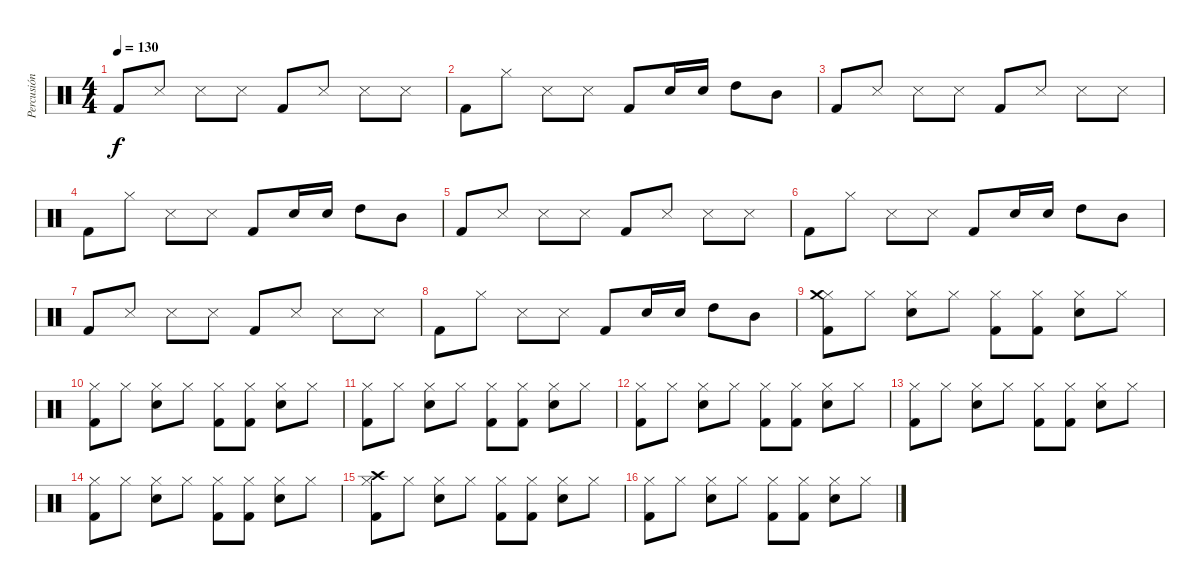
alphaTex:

\track ("Percusión" "Percusión") {instrument percussion}
\staff {score}
\articulation defaults
\ts (4 4)
\tempo 130
\clef neutral
\ks c "Kick (hit) 2".8{dy f} "Metronome (hit)".8 "Metronome (hit)".8 "Metronome (hit)".8 "Kick (hit) 2".8 "Metronome (hit)".8 "Metronome (hit)".8 "Metronome (hit)".8
|
"Kick (hit) 2".8 "Hi-Hat (closed)".8 "Metronome (hit)".8 "Metronome (hit)".8 "Kick (hit) 2".8 "Electric Snare (hit)".16 "Electric Snare (hit)".16 "High Tom (hit)".8 "Mid Tom (hit)".8 |
"Kick (hit) 2".8 "Metronome (hit)".8 "Metronome (hit)".8 "Metronome (hit)".8 "Kick (hit) 2".8 "Metronome (hit)".8 "Metronome (hit)".8 "Metronome (hit)".8 |
"Kick (hit) 2".8 "Hi-Hat (closed)".8 "Metronome (hit)".8 "Metronome (hit)".8 "Kick (hit) 2".8 "Electric Snare (hit)".16 "Electric Snare (hit)".16 "High Tom (hit)".8 "Mid Tom (hit)".8 |
"Kick (hit) 2".8 "Metronome (hit)".8 "Metronome (hit)".8 "Metronome (hit)".8 "Kick (hit) 2".8 "Metronome (hit)".8 "Metronome (hit)".8 "Metronome (hit)".8 |
"Kick (hit) 2".8 "Hi-Hat (closed)".8 "Metronome (hit)".8 "Metronome (hit)".8 "Kick (hit) 2".8 "Electric Snare (hit)".16 "Electric Snare (hit)".16 "High Tom (hit)".8 "Mid Tom (hit)".8 |
"Kick (hit) 2".8 "Metronome (hit)".8 "Metronome (hit)".8 "Metronome (hit)".8 "Kick (hit) 2".8 "Metronome (hit)".8 "Metronome (hit)".8 "Metronome (hit)".8 |
"Kick (hit) 2".8 "Hi-Hat (closed)".8 "Metronome (hit)".8 "Metronome (hit)".8 "Kick (hit) 2".8 "Electric Snare (hit)".16 "Electric Snare (hit)".16 "High Tom (hit)".8 "Mid Tom (hit)".8 |
("Hi-Hat (closed)" "Kick (hit) 2" "Crash medium (hit)").8 "Hi-Hat (closed)".8 ("Hi-Hat (closed)" "Electric Snare (hit)").8 "Hi-Hat (closed)".8 ("Hi-Hat (closed)" "Kick (hit) 2").8 ("Hi-Hat (closed)" "Kick (hit) 2").8 ("Hi-Hat (closed)" "Electric Snare (hit)").8 "Hi-Hat (closed)".8 |
("Hi-Hat (closed)" "Kick (hit) 2").8 "Hi-Hat (closed)".8 ("Hi-Hat (closed)" "Electric Snare (hit)").8 "Hi-Hat (closed)".8 ("Hi-Hat (closed)" "Kick (hit) 2").8 ("Hi-Hat (closed)" "Kick (hit) 2").8 ("Hi-Hat (closed)" "Electric Snare (hit)").8 "Hi-Hat (closed)".8 |
("Hi-Hat (closed)" "Kick (hit) 2").8 "Hi-Hat (closed)".8 ("Hi-Hat (closed)" "Electric Snare (hit)").8 "Hi-Hat (closed)".8 ("Hi-Hat (closed)" "Kick (hit) 2").8 ("Hi-Hat (closed)" "Kick (hit) 2").8 ("Hi-Hat (closed)" "Electric Snare (hit)").8 "Hi-Hat (closed)".8 |
("Hi-Hat (closed)" "Kick (hit) 2").8 "Hi-Hat (closed)".8 ("Hi-Hat (closed)" "Electric Snare (hit)").8 "Hi-Hat (closed)".8 ("Hi-Hat (closed)" "Kick (hit) 2").8 ("Hi-Hat (closed)" "Kick (hit) 2").8 ("Hi-Hat (closed)" "Electric Snare (hit)").8 "Hi-Hat (closed)".8 |
("Hi-Hat (closed)" "Kick (hit) 2").8 "Hi-Hat (closed)".8 ("Hi-Hat (closed)" "Electric Snare (hit)").8 "Hi-Hat (closed)".8 ("Hi-Hat (closed)" "Kick (hit) 2").8 ("Hi-Hat (closed)" "Kick (hit) 2").8 ("Hi-Hat (closed)" "Electric Snare (hit)").8 "Hi-Hat (closed)".8 |
("Hi-Hat (closed)" "Kick (hit) 2").8 "Hi-Hat (closed)".8 ("Hi-Hat (closed)" "Electric Snare (hit)").8 "Hi-Hat (closed)".8 ("Hi-Hat (closed)" "Kick (hit) 2").8 ("Hi-Hat (closed)" "Kick (hit) 2").8 ("Hi-Hat (closed)" "Electric Snare (hit)").8 "Hi-Hat (closed)".8 |
("Hi-Hat (closed)" "Kick (hit) 2" "Crash high (hit)").8 "Hi-Hat (closed)".8 ("Hi-Hat (closed)" "Electric Snare (hit)").8 "Hi-Hat (closed)".8 ("Hi-Hat (closed)" "Kick (hit) 2").8 ("Hi-Hat (closed)" "Kick (hit) 2").8 ("Hi-Hat (closed)" "Electric Snare (hit)").8 "Hi-Hat (closed)".8 |
("Hi-Hat (closed)" "Kick (hit) 2").8 "Hi-Hat (closed)".8 ("Hi-Hat (closed)" "Electric Snare (hit)").8 "Hi-Hat (closed)".8 ("Hi-Hat (closed)" "Kick (hit) 2").8 ("Hi-Hat (closed)" "Kick (hit) 2").8 ("Hi-Hat (closed)" "Electric Snare (hit)").8 "Hi-Hat (closed)".8
